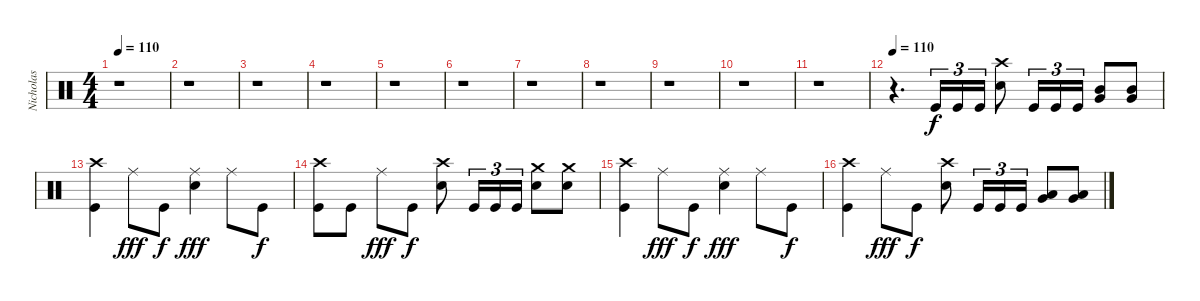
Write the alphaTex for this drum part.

\track ("Nicholas" "Nicholas") {instrument percussion}
\staff {score}
\articulation defaults
\ts (4 4)
\tempo 110
\tempo 100
\tempo 110
\clef neutral
\ks c
r.1{dy f} |
r.1 |
r.1 |
r.1 |
r.1 |
r.1 |
r.1 |
r.1 |
r.1 |
r.1 |
r.1 |
\tempo 110
r.4{d} "Kick (hit)".16{tu (3 2)} "Kick (hit)".16{tu (3 2)} "Kick (hit)".16{tu (3 2)} ("Crash high (hit)" "Electric Snare (hit)").8 "Kick (hit)".16{tu (3 2)} "Kick (hit)".16{tu (3 2)} "Kick (hit)".16{tu (3 2)} ("Mid Tom (hit)" "Very Low Tom (hit)").8{bu 60} ("Mid Tom (hit)" "Very Low Tom (hit)").8{bu 60} |
("Crash high (hit)" "Kick (hit)").4 "Ride (middle)".8{dy fff} "Kick (hit)".8{dy f} ("Ride (middle)" "Electric Snare (hit)").4{dy fff} "Ride (middle)".8 "Kick (hit)".8{dy f} |
("Crash high (hit)" "Kick (hit)").8 "Kick (hit)".8 "Ride (middle)".8{dy fff} "Kick (hit)".8{dy f} ("Crash high (hit)" "Electric Snare (hit)").8 "Kick (hit)".16{tu (3 2)} "Kick (hit)".16{tu (3 2)} "Kick (hit)".16{tu (3 2)} ("Crash medium (hit)" "Electric Snare (hit)").8 ("Crash medium (hit)" "Electric Snare (hit)").8 |
("Crash high (hit)" "Kick (hit)").4 "Ride (middle)".8{dy fff} "Kick (hit)".8{dy f} ("Ride (middle)" "Electric Snare (hit)").4{dy fff} "Ride (middle)".8 "Kick (hit)".8{dy f} |
("Crash high (hit)" "Kick (hit)").4 "Ride (middle)".8{dy fff} "Kick (hit)".8{dy f} ("Crash high (hit)" "Electric Snare (hit)").8 "Kick (hit)".16{tu (3 2)} "Kick (hit)".16{tu (3 2)} "Kick (hit)".16{tu (3 2)} ("Low Tom (hit)" "Very Low Tom (hit)").8{bd 60} ("Low Tom (hit)" "Very Low Tom (hit)").8{bd 60}
